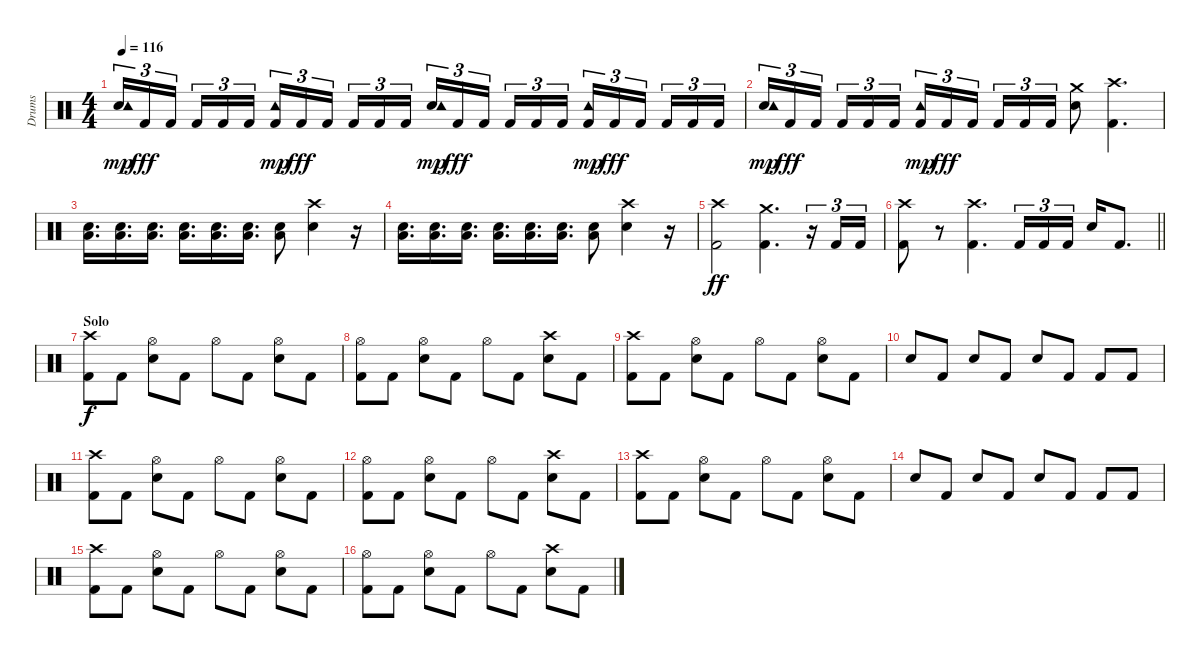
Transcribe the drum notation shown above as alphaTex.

\track ("Drums" "Drums") {instrument percussion}
\staff {score}
\articulation defaults
\ts (4 4)
\tempo 116
\clef neutral
\ks c
("Electric Snare (hit)" "Tambourine (hit)").16{tu (3 2) dy mp} "Kick (hit) 2".16{tu (3 2) dy fff} "Kick (hit) 2".16{tu (3 2)} "Kick (hit) 2".16{tu (3 2)} "Kick (hit) 2".16{tu (3 2)} "Kick (hit) 2".16{tu (3 2)} ("Kick (hit) 2" "Tambourine (hit)").16{tu (3 2) dy mp} "Kick (hit) 2".16{tu (3 2) dy fff} "Kick (hit) 2".16{tu (3 2)} "Kick (hit) 2".16{tu (3 2)} "Kick (hit) 2".16{tu (3 2)} "Kick (hit) 2".16{tu (3 2)} ("Electric Snare (hit)" "Tambourine (hit)").16{tu (3 2) dy mp} "Kick (hit) 2".16{tu (3 2) dy fff} "Kick (hit) 2".16{tu (3 2)} "Kick (hit) 2".16{tu (3 2)} "Kick (hit) 2".16{tu (3 2)} "Kick (hit) 2".16{tu (3 2)} ("Kick (hit) 2" "Tambourine (hit)").16{tu (3 2) dy mp} "Kick (hit) 2".16{tu (3 2) dy fff} "Kick (hit) 2".16{tu (3 2)} "Kick (hit) 2".16{tu (3 2)} "Kick (hit) 2".16{tu (3 2)} "Kick (hit) 2".16{tu (3 2)} |
("Electric Snare (hit)" "Tambourine (hit)").16{tu (3 2) dy mp} "Kick (hit) 2".16{tu (3 2) dy fff} "Kick (hit) 2".16{tu (3 2)} "Kick (hit) 2".16{tu (3 2)} "Kick (hit) 2".16{tu (3 2)} "Kick (hit) 2".16{tu (3 2)} ("Kick (hit) 2" "Tambourine (hit)").16{tu (3 2) dy mp} "Kick (hit) 2".16{tu (3 2) dy fff} "Kick (hit) 2".16{tu (3 2)} "Kick (hit) 2".16{tu (3 2)} "Kick (hit) 2".16{tu (3 2)} "Kick (hit) 2".16{tu (3 2)} ("Electric Snare (hit)" "Crash medium (hit)").8 ("Kick (hit) 2" "Crash high (hit)").4{d} |
("Low Tom (hit)" "Electric Snare (hit)").16{d} ("Low Tom (hit)" "Electric Snare (hit)").16{d} ("Low Tom (hit)" "Electric Snare (hit)").16{d} ("Low Tom (hit)" "Electric Snare (hit)").16{d} ("Low Tom (hit)" "Electric Snare (hit)").16{d} ("Low Tom (hit)" "Electric Snare (hit)").16{d} ("Low Tom (hit)" "Electric Snare (hit)").8 ("Crash high (hit)" "Electric Snare (hit)").4 r.16 |
("Low Tom (hit)" "Electric Snare (hit)").16{d} ("Low Tom (hit)" "Electric Snare (hit)").16{d} ("Low Tom (hit)" "Electric Snare (hit)").16{d} ("Low Tom (hit)" "Electric Snare (hit)").16{d} ("Low Tom (hit)" "Electric Snare (hit)").16{d} ("Low Tom (hit)" "Electric Snare (hit)").16{d} ("Low Tom (hit)" "Electric Snare (hit)").8 ("Crash high (hit)" "Electric Snare (hit)").4 r.16 |
("Kick (hit) 2" "Crash high (hit)").2{dy ff} ("Kick (hit) 2" "Crash medium (hit)").4{d} r.16{tu (3 2)} "Kick (hit) 2".16{tu (3 2)} "Kick (hit) 2".16{tu (3 2)} |
\barLineRight lightlight
("Kick (hit) 2" "Crash high (hit)").8 r.8 ("Kick (hit) 2" "Crash high (hit)").4{d} "Kick (hit) 2".16{tu (3 2)} "Kick (hit) 2".16{tu (3 2)} "Kick (hit) 2".16{tu (3 2)} "Electric Snare (hit)".16 "Kick (hit) 2".8{d} |
\section ("" "Solo")
("Crash high (hit)" "Kick (hit) 2").8{dy f} "Kick (hit) 2".8 ("Hi-Hat (open)" "Electric Snare (hit)").8 "Kick (hit) 2".8 "Hi-Hat (open)".8 "Kick (hit) 2".8 ("Hi-Hat (open)" "Electric Snare (hit)").8 "Kick (hit) 2".8 |
("Hi-Hat (open)" "Kick (hit) 2").8 "Kick (hit) 2".8 ("Hi-Hat (open)" "Electric Snare (hit)").8 "Kick (hit) 2".8 "Hi-Hat (open)".8 "Kick (hit) 2".8 ("Crash high (hit)" "Electric Snare (hit)").8 "Kick (hit) 2".8 |
("Crash high (hit)" "Kick (hit) 2").8 "Kick (hit) 2".8 ("Hi-Hat (open)" "Electric Snare (hit)").8 "Kick (hit) 2".8 "Hi-Hat (open)".8 "Kick (hit) 2".8 ("Hi-Hat (open)" "Electric Snare (hit)").8 "Kick (hit) 2".8 |
"Electric Snare (hit)".8 "Kick (hit) 2".8 "Electric Snare (hit)".8 "Kick (hit) 2".8 "Electric Snare (hit)".8 "Kick (hit) 2".8 "Kick (hit) 2".8 "Kick (hit) 2".8 |
("Crash high (hit)" "Kick (hit) 2").8 "Kick (hit) 2".8 ("Hi-Hat (open)" "Electric Snare (hit)").8 "Kick (hit) 2".8 "Hi-Hat (open)".8 "Kick (hit) 2".8 ("Hi-Hat (open)" "Electric Snare (hit)").8 "Kick (hit) 2".8 |
("Hi-Hat (open)" "Kick (hit) 2").8 "Kick (hit) 2".8 ("Hi-Hat (open)" "Electric Snare (hit)").8 "Kick (hit) 2".8 "Hi-Hat (open)".8 "Kick (hit) 2".8 ("Crash high (hit)" "Electric Snare (hit)").8 "Kick (hit) 2".8 |
("Crash high (hit)" "Kick (hit) 2").8 "Kick (hit) 2".8 ("Hi-Hat (open)" "Electric Snare (hit)").8 "Kick (hit) 2".8 "Hi-Hat (open)".8 "Kick (hit) 2".8 ("Hi-Hat (open)" "Electric Snare (hit)").8 "Kick (hit) 2".8 |
"Electric Snare (hit)".8 "Kick (hit) 2".8 "Electric Snare (hit)".8 "Kick (hit) 2".8 "Electric Snare (hit)".8 "Kick (hit) 2".8 "Kick (hit) 2".8 "Kick (hit) 2".8 |
("Crash high (hit)" "Kick (hit) 2").8 "Kick (hit) 2".8 ("Hi-Hat (open)" "Electric Snare (hit)").8 "Kick (hit) 2".8 "Hi-Hat (open)".8 "Kick (hit) 2".8 ("Hi-Hat (open)" "Electric Snare (hit)").8 "Kick (hit) 2".8 |
("Hi-Hat (open)" "Kick (hit) 2").8 "Kick (hit) 2".8 ("Hi-Hat (open)" "Electric Snare (hit)").8 "Kick (hit) 2".8 "Hi-Hat (open)".8 "Kick (hit) 2".8 ("Crash high (hit)" "Electric Snare (hit)").8 "Kick (hit) 2".8
